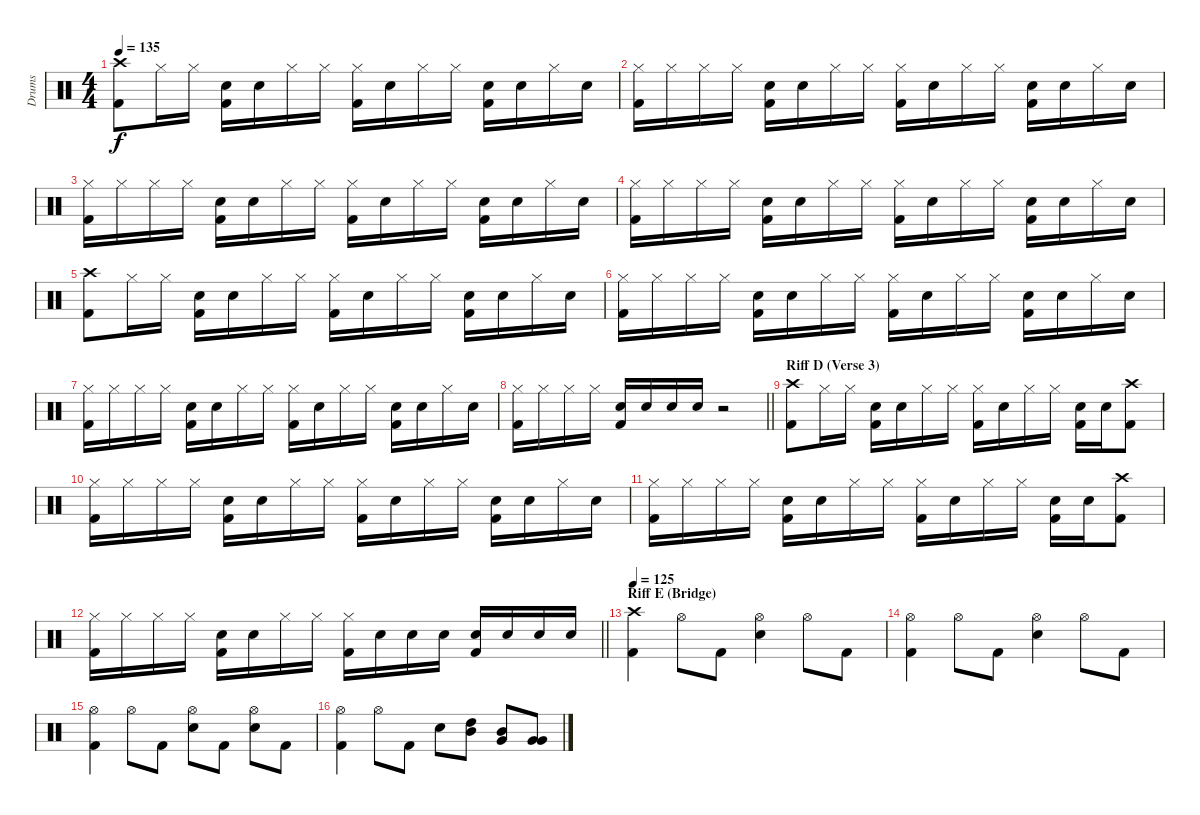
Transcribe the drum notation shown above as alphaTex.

\track ("Drums" "Drums") {instrument percussion}
\staff {score}
\articulation defaults
\ts (4 4)
\tempo 135
\clef neutral
\ks c
("Crash high (hit)" "Kick (hit) 2").8{dy f} "Hi-Hat (closed)".16 "Hi-Hat (closed)".16 ("Snare (hit) 2" "Kick (hit) 2").16 "Snare (hit) 2".16 "Hi-Hat (closed)".16 "Hi-Hat (closed)".16 ("Hi-Hat (closed)" "Kick (hit) 2").16 "Snare (hit) 2".16 "Hi-Hat (closed)".16 "Hi-Hat (closed)".16 ("Snare (hit) 2" "Kick (hit) 2").16 "Snare (hit) 2".16 "Hi-Hat (closed)".16 "Snare (hit) 2".16 |
("Hi-Hat (closed)" "Kick (hit) 2").16 "Hi-Hat (closed)".16 "Hi-Hat (closed)".16 "Hi-Hat (closed)".16 ("Snare (hit) 2" "Kick (hit) 2").16 "Snare (hit) 2".16 "Hi-Hat (closed)".16 "Hi-Hat (closed)".16 ("Hi-Hat (closed)" "Kick (hit) 2").16 "Snare (hit) 2".16 "Hi-Hat (closed)".16 "Hi-Hat (closed)".16 ("Snare (hit) 2" "Kick (hit) 2").16 "Snare (hit) 2".16 "Hi-Hat (closed)".16 "Snare (hit) 2".16 |
("Hi-Hat (closed)" "Kick (hit) 2").16 "Hi-Hat (closed)".16 "Hi-Hat (closed)".16 "Hi-Hat (closed)".16 ("Snare (hit) 2" "Kick (hit) 2").16 "Snare (hit) 2".16 "Hi-Hat (closed)".16 "Hi-Hat (closed)".16 ("Hi-Hat (closed)" "Kick (hit) 2").16 "Snare (hit) 2".16 "Hi-Hat (closed)".16 "Hi-Hat (closed)".16 ("Snare (hit) 2" "Kick (hit) 2").16 "Snare (hit) 2".16 "Hi-Hat (closed)".16 "Snare (hit) 2".16 |
("Hi-Hat (closed)" "Kick (hit) 2").16 "Hi-Hat (closed)".16 "Hi-Hat (closed)".16 "Hi-Hat (closed)".16 ("Snare (hit) 2" "Kick (hit) 2").16 "Snare (hit) 2".16 "Hi-Hat (closed)".16 "Hi-Hat (closed)".16 ("Hi-Hat (closed)" "Kick (hit) 2").16 "Snare (hit) 2".16 "Hi-Hat (closed)".16 "Hi-Hat (closed)".16 ("Snare (hit) 2" "Kick (hit) 2").16 "Snare (hit) 2".16 "Hi-Hat (closed)".16 "Snare (hit) 2".16 |
("Crash high (hit)" "Kick (hit) 2").8 "Hi-Hat (closed)".16 "Hi-Hat (closed)".16 ("Snare (hit) 2" "Kick (hit) 2").16 "Snare (hit) 2".16 "Hi-Hat (closed)".16 "Hi-Hat (closed)".16 ("Hi-Hat (closed)" "Kick (hit) 2").16 "Snare (hit) 2".16 "Hi-Hat (closed)".16 "Hi-Hat (closed)".16 ("Snare (hit) 2" "Kick (hit) 2").16 "Snare (hit) 2".16 "Hi-Hat (closed)".16 "Snare (hit) 2".16 |
("Hi-Hat (closed)" "Kick (hit) 2").16 "Hi-Hat (closed)".16 "Hi-Hat (closed)".16 "Hi-Hat (closed)".16 ("Snare (hit) 2" "Kick (hit) 2").16 "Snare (hit) 2".16 "Hi-Hat (closed)".16 "Hi-Hat (closed)".16 ("Hi-Hat (closed)" "Kick (hit) 2").16 "Snare (hit) 2".16 "Hi-Hat (closed)".16 "Hi-Hat (closed)".16 ("Snare (hit) 2" "Kick (hit) 2").16 "Snare (hit) 2".16 "Hi-Hat (closed)".16 "Snare (hit) 2".16 |
("Hi-Hat (closed)" "Kick (hit) 2").16 "Hi-Hat (closed)".16 "Hi-Hat (closed)".16 "Hi-Hat (closed)".16 ("Snare (hit) 2" "Kick (hit) 2").16 "Snare (hit) 2".16 "Hi-Hat (closed)".16 "Hi-Hat (closed)".16 ("Hi-Hat (closed)" "Kick (hit) 2").16 "Snare (hit) 2".16 "Hi-Hat (closed)".16 "Hi-Hat (closed)".16 ("Snare (hit) 2" "Kick (hit) 2").16 "Snare (hit) 2".16 "Hi-Hat (closed)".16 "Snare (hit) 2".16 |
\barLineRight lightlight
("Hi-Hat (closed)" "Kick (hit) 2").16 "Hi-Hat (closed)".16 "Hi-Hat (closed)".16 "Hi-Hat (closed)".16 ("Snare (hit) 2" "Kick (hit) 2").16 "Snare (hit) 2".16 "Snare (hit) 2".16 "Snare (hit) 2".16 r.2 |
\section ("" "Riff D (Verse 3)")
("Crash high (hit)" "Kick (hit) 2").8 "Hi-Hat (closed)".16 "Hi-Hat (closed)".16 ("Snare (hit) 2" "Kick (hit) 2").16 "Snare (hit) 2".16 "Hi-Hat (closed)".16 "Hi-Hat (closed)".16 ("Hi-Hat (closed)" "Kick (hit) 2").16 "Snare (hit) 2".16 "Hi-Hat (closed)".16 "Hi-Hat (closed)".16 ("Snare (hit) 2" "Kick (hit) 2").16 "Snare (hit) 2".16 ("Crash high (hit)" "Kick (hit) 2").8 |
("Hi-Hat (closed)" "Kick (hit) 2").16 "Hi-Hat (closed)".16 "Hi-Hat (closed)".16 "Hi-Hat (closed)".16 ("Snare (hit) 2" "Kick (hit) 2").16 "Snare (hit) 2".16 "Hi-Hat (closed)".16 "Hi-Hat (closed)".16 ("Hi-Hat (closed)" "Kick (hit) 2").16 "Snare (hit) 2".16 "Hi-Hat (closed)".16 "Hi-Hat (closed)".16 ("Snare (hit) 2" "Kick (hit) 2").16 "Snare (hit) 2".16 "Hi-Hat (closed)".16 "Snare (hit) 2".16 |
("Hi-Hat (closed)" "Kick (hit) 2").16 "Hi-Hat (closed)".16 "Hi-Hat (closed)".16 "Hi-Hat (closed)".16 ("Snare (hit) 2" "Kick (hit) 2").16 "Snare (hit) 2".16 "Hi-Hat (closed)".16 "Hi-Hat (closed)".16 ("Hi-Hat (closed)" "Kick (hit) 2").16 "Snare (hit) 2".16 "Hi-Hat (closed)".16 "Hi-Hat (closed)".16 ("Snare (hit) 2" "Kick (hit) 2").16 "Snare (hit) 2".16 ("Crash high (hit)" "Kick (hit) 2").8 |
\barLineRight lightlight
("Hi-Hat (closed)" "Kick (hit) 2").16 "Hi-Hat (closed)".16 "Hi-Hat (closed)".16 "Hi-Hat (closed)".16 ("Snare (hit) 2" "Kick (hit) 2").16 "Snare (hit) 2".16 "Hi-Hat (closed)".16 "Hi-Hat (closed)".16 ("Hi-Hat (closed)" "Kick (hit) 2").16 "Snare (hit) 2".16 "Snare (hit) 2".16 "Snare (hit) 2".16 ("Snare (hit) 2" "Kick (hit) 2").16 "Snare (hit) 2".16 "Snare (hit) 2".16 "Snare (hit) 2".16 |
\section ("" "Riff E (Bridge)")
\tempo 125
("Crash high (hit)" "Kick (hit) 2").4 "Hi-Hat (open)".8 "Kick (hit) 2".8 ("Hi-Hat (open)" "Snare (hit) 2").4 "Hi-Hat (open)".8 "Kick (hit) 2".8 |
("Hi-Hat (open)" "Kick (hit) 2").4 "Hi-Hat (open)".8 "Kick (hit) 2".8 ("Hi-Hat (open)" "Snare (hit) 2").4 "Hi-Hat (open)".8 "Kick (hit) 2".8 |
("Hi-Hat (open)" "Kick (hit) 2").4 "Hi-Hat (open)".8 "Kick (hit) 2".8 ("Hi-Hat (open)" "Snare (hit) 2").8 "Kick (hit) 2".8 ("Hi-Hat (open)" "Snare (hit) 2").8 "Kick (hit) 2".8 |
("Hi-Hat (open)" "Kick (hit) 2").4 "Hi-Hat (open)".8 "Kick (hit) 2".8 "Snare (hit) 2".8 ("High Tom (hit)" "Mid Tom (hit)").8 ("Mid Tom (hit)" "Very Low Tom (hit)").8 ("Very Low Tom (hit)" "Very Low Tom (hit)").8
